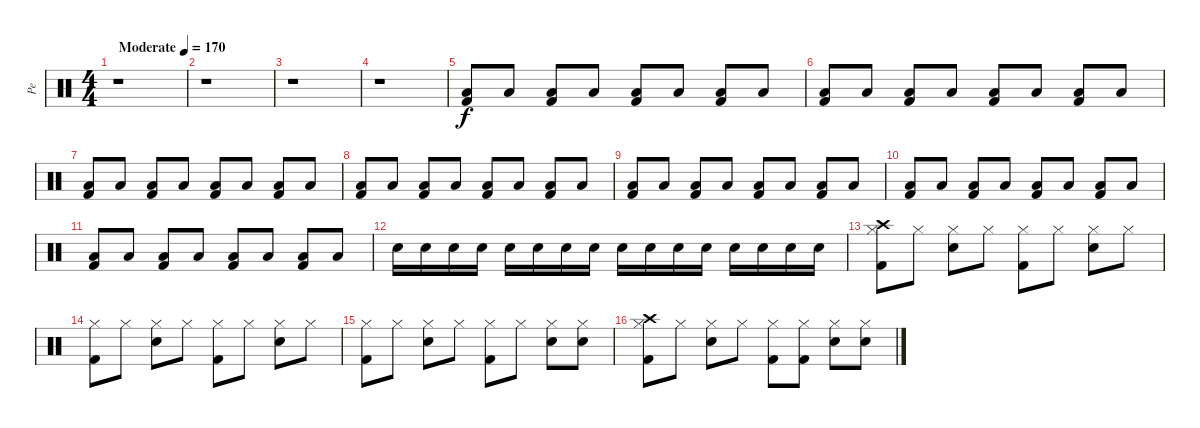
\track ("Pe" "Pe") {instrument percussion}
\staff {score}
\articulation defaults
\ts (4 4)
\tempo (170 "Moderate")
\clef neutral
\ks c
r.1{dy f} |
r.1 |
r.1 |
r.1 |
("Low Floor Tom (hit)" "Kick (hit) 2").8 "Low Floor Tom (hit)".8 ("Low Floor Tom (hit)" "Kick (hit) 2").8 "Low Floor Tom (hit)".8 ("Low Floor Tom (hit)" "Kick (hit) 2").8 "Low Floor Tom (hit)".8 ("Low Floor Tom (hit)" "Kick (hit) 2").8 "Low Floor Tom (hit)".8 |
("Low Floor Tom (hit)" "Kick (hit) 2").8 "Low Floor Tom (hit)".8 ("Low Floor Tom (hit)" "Kick (hit) 2").8 "Low Floor Tom (hit)".8 ("Low Floor Tom (hit)" "Kick (hit) 2").8 "Low Floor Tom (hit)".8 ("Low Floor Tom (hit)" "Kick (hit) 2").8 "Low Floor Tom (hit)".8 |
("Low Floor Tom (hit)" "Kick (hit) 2").8 "Low Floor Tom (hit)".8 ("Low Floor Tom (hit)" "Kick (hit) 2").8 "Low Floor Tom (hit)".8 ("Low Floor Tom (hit)" "Kick (hit) 2").8 "Low Floor Tom (hit)".8 ("Low Floor Tom (hit)" "Kick (hit) 2").8 "Low Floor Tom (hit)".8 |
("Low Floor Tom (hit)" "Kick (hit) 2").8 "Low Floor Tom (hit)".8 ("Low Floor Tom (hit)" "Kick (hit) 2").8 "Low Floor Tom (hit)".8 ("Low Floor Tom (hit)" "Kick (hit) 2").8 "Low Floor Tom (hit)".8 ("Low Floor Tom (hit)" "Kick (hit) 2").8 "Low Floor Tom (hit)".8 |
("Low Floor Tom (hit)" "Kick (hit) 2").8 "Low Floor Tom (hit)".8 ("Low Floor Tom (hit)" "Kick (hit) 2").8 "Low Floor Tom (hit)".8 ("Low Floor Tom (hit)" "Kick (hit) 2").8 "Low Floor Tom (hit)".8 ("Low Floor Tom (hit)" "Kick (hit) 2").8 "Low Floor Tom (hit)".8 |
("Low Floor Tom (hit)" "Kick (hit) 2").8 "Low Floor Tom (hit)".8 ("Low Floor Tom (hit)" "Kick (hit) 2").8 "Low Floor Tom (hit)".8 ("Low Floor Tom (hit)" "Kick (hit) 2").8 "Low Floor Tom (hit)".8 ("Low Floor Tom (hit)" "Kick (hit) 2").8 "Low Floor Tom (hit)".8 |
("Low Floor Tom (hit)" "Kick (hit) 2").8 "Low Floor Tom (hit)".8 ("Low Floor Tom (hit)" "Kick (hit) 2").8 "Low Floor Tom (hit)".8 ("Low Floor Tom (hit)" "Kick (hit) 2").8 "Low Floor Tom (hit)".8 ("Low Floor Tom (hit)" "Kick (hit) 2").8 "Low Floor Tom (hit)".8 |
"Snare (hit) 2".16 "Snare (hit) 2".16 "Snare (hit) 2".16 "Snare (hit) 2".16 "Snare (hit) 2".16 "Snare (hit) 2".16 "Snare (hit) 2".16 "Snare (hit) 2".16 "Snare (hit) 2".16 "Snare (hit) 2".16 "Snare (hit) 2".16 "Snare (hit) 2".16 "Snare (hit) 2".16 "Snare (hit) 2".16 "Snare (hit) 2".16 "Snare (hit) 2".16 |
("Crash high (hit)" "Hi-Hat (closed)" "Kick (hit) 2").8 "Hi-Hat (closed)".8 ("Hi-Hat (closed)" "Snare (hit) 2").8 "Hi-Hat (closed)".8 ("Hi-Hat (closed)" "Kick (hit) 2").8 "Hi-Hat (closed)".8 ("Hi-Hat (closed)" "Snare (hit) 2").8 "Hi-Hat (closed)".8 |
("Hi-Hat (closed)" "Kick (hit) 2").8 "Hi-Hat (closed)".8 ("Hi-Hat (closed)" "Snare (hit) 2").8 "Hi-Hat (closed)".8 ("Hi-Hat (closed)" "Kick (hit) 2").8 "Hi-Hat (closed)".8 ("Hi-Hat (closed)" "Snare (hit) 2").8 "Hi-Hat (closed)".8 |
("Hi-Hat (closed)" "Kick (hit) 2").8 "Hi-Hat (closed)".8 ("Hi-Hat (closed)" "Snare (hit) 2").8 "Hi-Hat (closed)".8 ("Hi-Hat (closed)" "Kick (hit) 2").8 "Hi-Hat (closed)".8 ("Hi-Hat (closed)" "Snare (hit) 2").8 ("Hi-Hat (closed)" "Snare (hit) 2").8 |
("Crash high (hit)" "Hi-Hat (closed)" "Kick (hit) 2").8 "Hi-Hat (closed)".8 ("Hi-Hat (closed)" "Snare (hit) 2").8 "Hi-Hat (closed)".8 ("Hi-Hat (closed)" "Kick (hit) 2").8 ("Hi-Hat (closed)" "Kick (hit) 2").8 ("Hi-Hat (closed)" "Snare (hit) 2").8 ("Hi-Hat (closed)" "Snare (hit) 2").8
